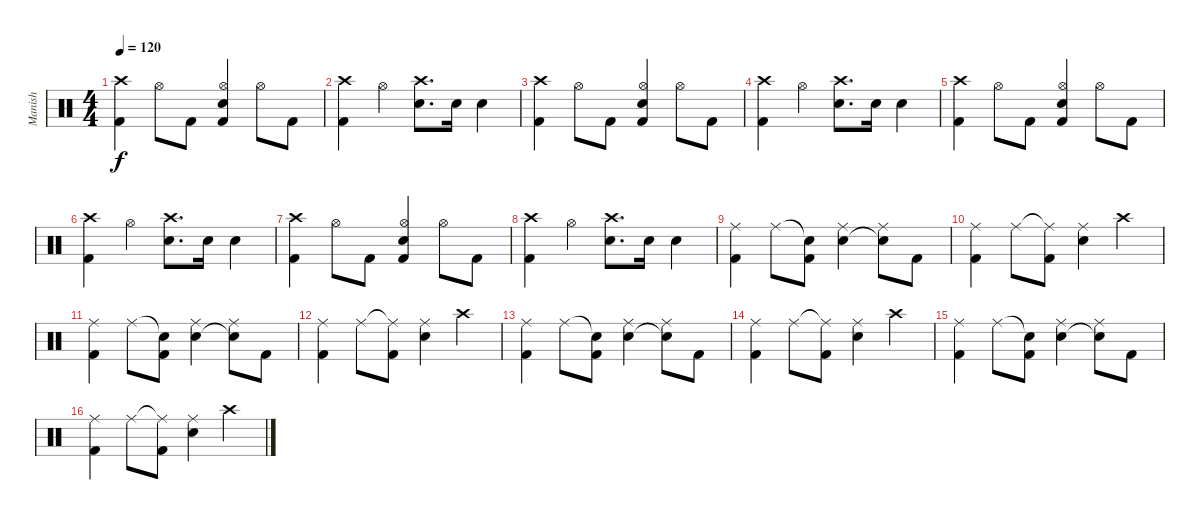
\track ("Manish" "Manish") {instrument percussion}
\staff {score}
\articulation defaults
\ts (4 4)
\tempo 120
\clef neutral
\ks c
("Crash high (hit)" "Kick (hit) 2").4{dy f} "Hi-Hat (open)".8 "Kick (hit) 2".8 ("Hi-Hat (open)" "Kick (hit) 2" "Snare (hit) 2").4 "Hi-Hat (open)".8 "Kick (hit) 2".8 |
("Crash high (hit)" "Kick (hit) 2").4 "Hi-Hat (open)".4 ("Crash high (hit)" "Snare (hit) 2").8{d} "Snare (hit) 2".16 "Snare (hit) 2".4 |
("Crash high (hit)" "Kick (hit) 2").4 "Hi-Hat (open)".8 "Kick (hit) 2".8 ("Hi-Hat (open)" "Kick (hit) 2" "Snare (hit) 2").4 "Hi-Hat (open)".8 "Kick (hit) 2".8 |
("Crash high (hit)" "Kick (hit) 2").4 "Hi-Hat (open)".4 ("Crash high (hit)" "Snare (hit) 2").8{d} "Snare (hit) 2".16 "Snare (hit) 2".4 |
("Crash high (hit)" "Kick (hit) 2").4 "Hi-Hat (open)".8 "Kick (hit) 2".8 ("Hi-Hat (open)" "Kick (hit) 2" "Snare (hit) 2").4 "Hi-Hat (open)".8 "Kick (hit) 2".8 |
("Crash high (hit)" "Kick (hit) 2").4 "Hi-Hat (open)".4 ("Crash high (hit)" "Snare (hit) 2").8{d} "Snare (hit) 2".16 "Snare (hit) 2".4 |
("Crash high (hit)" "Kick (hit) 2").4 "Hi-Hat (open)".8 "Kick (hit) 2".8 ("Hi-Hat (open)" "Kick (hit) 2" "Snare (hit) 2").4 "Hi-Hat (open)".8 "Kick (hit) 2".8 |
("Crash high (hit)" "Kick (hit) 2").4 "Hi-Hat (open)".4 ("Crash high (hit)" "Snare (hit) 2").8{d} "Snare (hit) 2".16 "Snare (hit) 2".4 |
("Ride (middle)" "Kick (hit) 2").4 "Ride (middle)".8 ("Snare (hit)"{t} "Kick (hit) 2").8 ("Ride (middle)" "Snare (hit) 2").4 ("Ride (middle)" "Snare (hit)"{t}).8 "Kick (hit) 2".8 |
("Ride (middle)" "Kick (hit) 2").4 "Ride (middle)".8 ("Ride (middle)"{t} "Kick (hit) 2").8 ("Ride (middle)" "Snare (hit) 2").4 "Crash high (hit)".4 |
("Ride (middle)" "Kick (hit) 2").4 "Ride (middle)".8 ("Snare (hit)"{t} "Kick (hit) 2").8 ("Ride (middle)" "Snare (hit) 2").4 ("Ride (middle)" "Snare (hit)"{t}).8 "Kick (hit) 2".8 |
("Ride (middle)" "Kick (hit) 2").4 "Ride (middle)".8 ("Ride (middle)"{t} "Kick (hit) 2").8 ("Ride (middle)" "Snare (hit) 2").4 "Crash high (hit)".4 |
("Ride (middle)" "Kick (hit) 2").4 "Ride (middle)".8 ("Snare (hit)"{t} "Kick (hit) 2").8 ("Ride (middle)" "Snare (hit) 2").4 ("Ride (middle)" "Snare (hit)"{t}).8 "Kick (hit) 2".8 |
("Ride (middle)" "Kick (hit) 2").4 "Ride (middle)".8 ("Ride (middle)"{t} "Kick (hit) 2").8 ("Ride (middle)" "Snare (hit) 2").4 "Crash high (hit)".4 |
("Ride (middle)" "Kick (hit) 2").4 "Ride (middle)".8 ("Snare (hit)"{t} "Kick (hit) 2").8 ("Ride (middle)" "Snare (hit) 2").4 ("Ride (middle)" "Snare (hit)"{t}).8 "Kick (hit) 2".8 |
("Ride (middle)" "Kick (hit) 2").4 "Ride (middle)".8 ("Ride (middle)"{t} "Kick (hit) 2").8 ("Ride (middle)" "Snare (hit) 2").4 "Crash high (hit)".4
